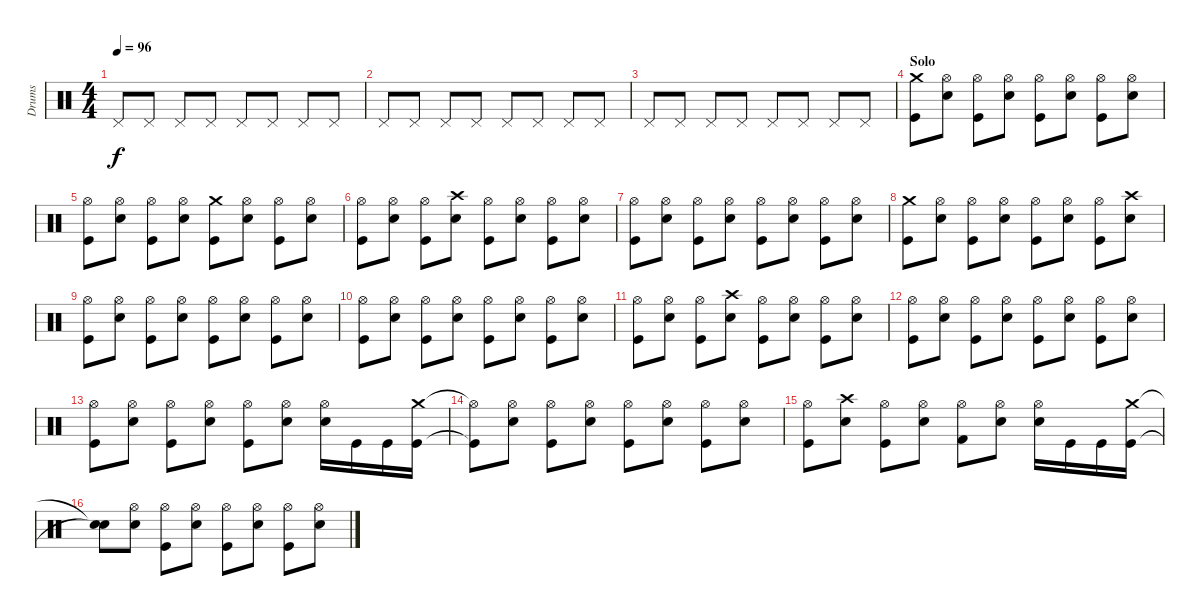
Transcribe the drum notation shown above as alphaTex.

\track ("Drums" "Drums") {instrument percussion}
\staff {score}
\articulation defaults
\ts (4 4)
\tempo 96
\clef neutral
\ks c "Pedal Hi-Hat (hit)".8{dy f} "Pedal Hi-Hat (hit)".8 "Pedal Hi-Hat (hit)".8 "Pedal Hi-Hat (hit)".8 "Pedal Hi-Hat (hit)".8 "Pedal Hi-Hat (hit)".8 "Pedal Hi-Hat (hit)".8 "Pedal Hi-Hat (hit)".8
|
"Pedal Hi-Hat (hit)".8 "Pedal Hi-Hat (hit)".8 "Pedal Hi-Hat (hit)".8 "Pedal Hi-Hat (hit)".8 "Pedal Hi-Hat (hit)".8 "Pedal Hi-Hat (hit)".8 "Pedal Hi-Hat (hit)".8 "Pedal Hi-Hat (hit)".8 |
"Pedal Hi-Hat (hit)".8 "Pedal Hi-Hat (hit)".8 "Pedal Hi-Hat (hit)".8 "Pedal Hi-Hat (hit)".8 "Pedal Hi-Hat (hit)".8 "Pedal Hi-Hat (hit)".8 "Pedal Hi-Hat (hit)".8 "Pedal Hi-Hat (hit)".8 |
\section ("" "Solo")
("Crash medium (hit)" "Kick (hit)").8 ("Hi-Hat (open)" "Snare (hit) 2").8 ("Hi-Hat (open)" "Kick (hit)").8 ("Hi-Hat (open)" "Snare (hit) 2").8 ("Hi-Hat (open)" "Kick (hit)").8 ("Hi-Hat (open)" "Snare (hit) 2").8 ("Hi-Hat (open)" "Kick (hit)").8 ("Hi-Hat (open)" "Snare (hit) 2").8 |
("Hi-Hat (open)" "Kick (hit)").8 ("Hi-Hat (open)" "Snare (hit) 2").8 ("Hi-Hat (open)" "Kick (hit)").8 ("Hi-Hat (open)" "Snare (hit) 2").8 ("Crash medium (hit)" "Kick (hit)").8 ("Hi-Hat (open)" "Snare (hit) 2").8 ("Hi-Hat (open)" "Kick (hit)").8 ("Hi-Hat (open)" "Snare (hit) 2").8 |
("Hi-Hat (open)" "Kick (hit)").8 ("Hi-Hat (open)" "Snare (hit) 2").8 ("Hi-Hat (open)" "Kick (hit)").8 ("Crash high (hit)" "Snare (hit) 2").8 ("Hi-Hat (open)" "Kick (hit)").8 ("Hi-Hat (open)" "Snare (hit) 2").8 ("Hi-Hat (open)" "Kick (hit)").8 ("Hi-Hat (open)" "Snare (hit) 2").8 |
("Hi-Hat (open)" "Kick (hit)").8 ("Hi-Hat (open)" "Snare (hit) 2").8 ("Hi-Hat (open)" "Kick (hit)").8 ("Hi-Hat (open)" "Snare (hit) 2").8 ("Hi-Hat (open)" "Kick (hit)").8 ("Hi-Hat (open)" "Snare (hit) 2").8 ("Hi-Hat (open)" "Kick (hit)").8 ("Hi-Hat (open)" "Snare (hit) 2").8 |
("Crash medium (hit)" "Kick (hit)").8 ("Hi-Hat (open)" "Snare (hit) 2").8 ("Hi-Hat (open)" "Kick (hit)").8 ("Hi-Hat (open)" "Snare (hit) 2").8 ("Hi-Hat (open)" "Kick (hit)").8 ("Hi-Hat (open)" "Snare (hit) 2").8 ("Hi-Hat (open)" "Kick (hit)").8 ("Crash high (hit)" "Snare (hit) 2").8 |
("Hi-Hat (open)" "Kick (hit)").8 ("Hi-Hat (open)" "Snare (hit) 2").8 ("Hi-Hat (open)" "Kick (hit)").8 ("Hi-Hat (open)" "Snare (hit) 2").8 ("Hi-Hat (open)" "Kick (hit)").8 ("Hi-Hat (open)" "Snare (hit) 2").8 ("Hi-Hat (open)" "Kick (hit)").8 ("Hi-Hat (open)" "Snare (hit) 2").8 |
("Hi-Hat (open)" "Kick (hit)").8 ("Hi-Hat (open)" "Snare (hit) 2").8 ("Hi-Hat (open)" "Kick (hit)").8 ("Hi-Hat (open)" "Snare (hit) 2").8 ("Hi-Hat (open)" "Kick (hit)").8 ("Hi-Hat (open)" "Snare (hit) 2").8 ("Hi-Hat (open)" "Kick (hit)").8 ("Hi-Hat (open)" "Snare (hit) 2").8 |
("Hi-Hat (open)" "Kick (hit)").8 ("Hi-Hat (open)" "Snare (hit) 2").8 ("Hi-Hat (open)" "Kick (hit)").8 ("Crash high (hit)" "Snare (hit) 2").8 ("Hi-Hat (open)" "Kick (hit)").8 ("Hi-Hat (open)" "Snare (hit) 2").8 ("Hi-Hat (open)" "Kick (hit)").8 ("Hi-Hat (open)" "Snare (hit) 2").8 |
("Hi-Hat (open)" "Kick (hit)").8 ("Hi-Hat (open)" "Snare (hit) 2").8 ("Hi-Hat (open)" "Kick (hit)").8 ("Hi-Hat (open)" "Snare (hit) 2").8 ("Hi-Hat (open)" "Kick (hit)").8 ("Hi-Hat (open)" "Snare (hit) 2").8 ("Hi-Hat (open)" "Kick (hit)").8 ("Hi-Hat (open)" "Snare (hit) 2").8 |
("Hi-Hat (open)" "Kick (hit)").8 ("Hi-Hat (open)" "Snare (hit) 2").8 ("Hi-Hat (open)" "Kick (hit)").8 ("Hi-Hat (open)" "Snare (hit) 2").8 ("Hi-Hat (open)" "Kick (hit)").8 ("Hi-Hat (open)" "Snare (hit) 2").8 ("Hi-Hat (open)" "Snare (hit) 2").16 "Kick (hit)".16 "Kick (hit)".16 ("Crash medium (hit)" "Kick (hit)").16 |
("Hi-Hat (open)"{t} "Kick (hit)"{t}).8 ("Hi-Hat (open)" "Snare (hit) 2").8 ("Hi-Hat (open)" "Kick (hit)").8 ("Hi-Hat (open)" "Snare (hit) 2").8 ("Hi-Hat (open)" "Kick (hit)").8 ("Hi-Hat (open)" "Snare (hit) 2").8 ("Hi-Hat (open)" "Kick (hit)").8 ("Hi-Hat (open)" "Snare (hit) 2").8 |
("Hi-Hat (open)" "Kick (hit)").8 ("Crash high (hit)" "Snare (hit) 2").8 ("Hi-Hat (open)" "Kick (hit)").8 ("Hi-Hat (open)" "Snare (hit) 2").8 ("Hi-Hat (open)" "Kick (hit) 2").8 ("Hi-Hat (open)" "Snare (hit) 2").8 ("Hi-Hat (open)" "Snare (hit) 2").16 "Kick (hit)".16 "Kick (hit)".16 ("Crash medium (hit)" "Kick (hit)").16 |
("Snare (hit)"{t} "Snare (hit)"{t}).8 ("Hi-Hat (open)" "Snare (hit) 2").8 ("Hi-Hat (open)" "Kick (hit)").8 ("Hi-Hat (open)" "Snare (hit) 2").8 ("Hi-Hat (open)" "Kick (hit)").8 ("Hi-Hat (open)" "Snare (hit) 2").8 ("Hi-Hat (open)" "Kick (hit)").8 ("Hi-Hat (open)" "Snare (hit) 2").8
